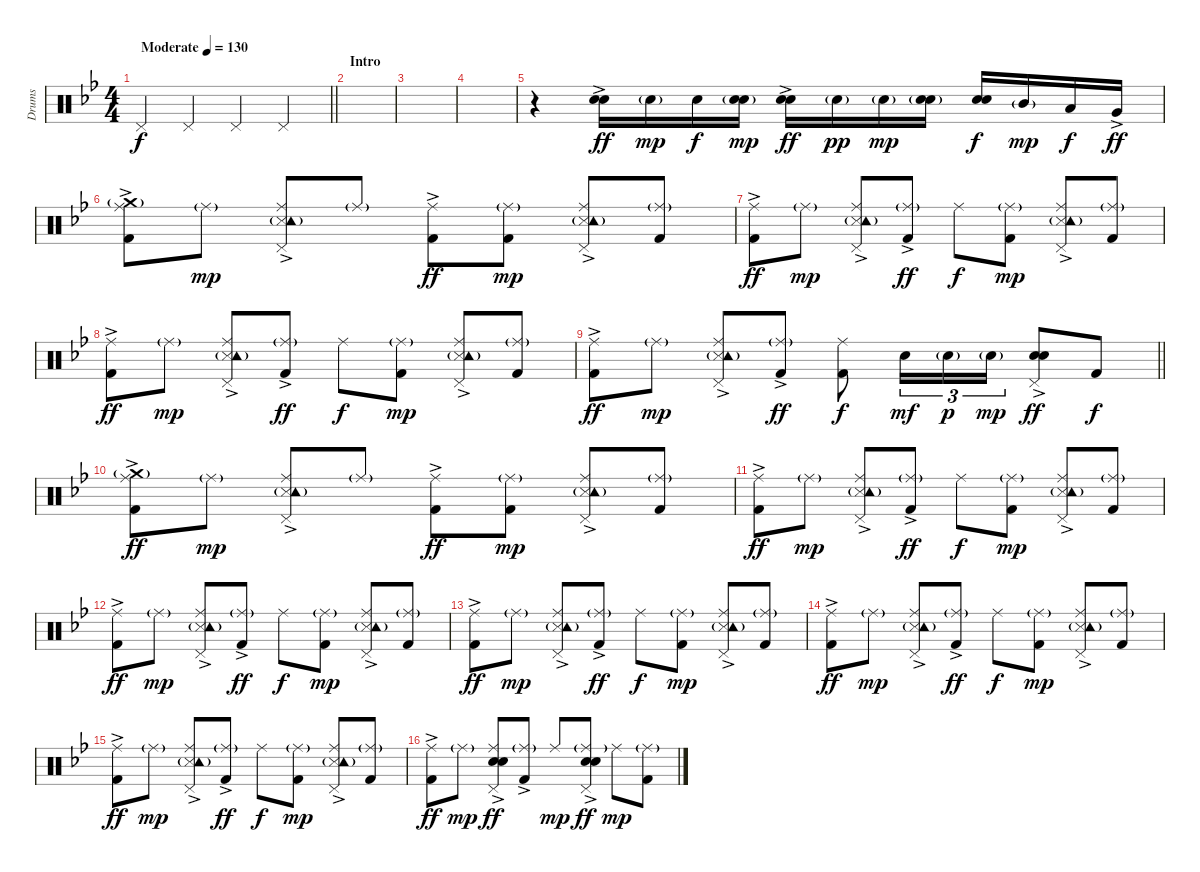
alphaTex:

\track ("Drums" "Drums") {instrument percussion}
\staff {score}
\articulation defaults
\ts (4 4)
\tempo (130 "Moderate")
\clef neutral
\barLineRight lightlight
\ks bb "Pedal Hi-Hat (hit)".4{dy f} "Pedal Hi-Hat (hit)".4 "Pedal Hi-Hat (hit)".4 "Pedal Hi-Hat (hit)".4
|
\section ("" "Intro")
|
|
|
r.4 ("Electric Snare (hit)" "Snare (hit) 2"{ac}).16{dy ff} "Electric Snare (hit)"{g}.16{dy mp} "Electric Snare (hit)".16{dy f} ("Electric Snare (hit)"{g} "Snare (hit) 2").16{dy mp} ("Electric Snare (hit)" "Snare (hit) 2"{ac}).16{dy ff} "Electric Snare (hit)"{g}.16{dy pp} "Electric Snare (hit)"{g}.16{dy mp} ("Electric Snare (hit)"{g} "Snare (hit) 2").16 ("Electric Snare (hit)" "Snare (hit) 2").16{dy f} "Mid Tom (hit)"{g}.16{dy mp} "Low Tom (hit)".16{dy f} "Very Low Tom (hit)"{ac}.16{dy ff} |
("Ride (middle)" "Crash medium (hit)"{g} "Kick (hit) 2"{ac}).8 "Ride (middle)"{g}.8{dy mp} ("Ride (middle)" "Pedal Hi-Hat (hit)" "Snare (side stick) 3"{ac} "Tambourine (hit)"{g}).8 "Ride (middle)"{g}.8 ("Ride (middle)" "Kick (hit) 2"{ac}).8{dy ff} ("Ride (middle)"{g} "Kick (hit) 2").8{dy mp} ("Ride (middle)" "Pedal Hi-Hat (hit)" "Snare (side stick) 3"{ac} "Tambourine (hit)"{g}).8 ("Ride (middle)"{g} "Kick (hit) 2").8 |
("Ride (middle)" "Kick (hit) 2"{ac}).8{dy ff} "Ride (middle)"{g}.8{dy mp} ("Ride (middle)" "Pedal Hi-Hat (hit)" "Snare (side stick) 3"{ac} "Tambourine (hit)"{g}).8 ("Ride (middle)"{g} "Kick (hit) 2"{ac}).8{dy ff} "Ride (middle)".8{dy f} ("Ride (middle)"{g} "Kick (hit) 2").8{dy mp} ("Ride (middle)" "Pedal Hi-Hat (hit)" "Snare (side stick) 3"{ac} "Tambourine (hit)"{g}).8 ("Ride (middle)"{g} "Kick (hit) 2").8 |
("Ride (middle)" "Kick (hit) 2"{ac}).8{dy ff} "Ride (middle)"{g}.8{dy mp} ("Ride (middle)" "Pedal Hi-Hat (hit)" "Snare (side stick) 3"{ac} "Tambourine (hit)"{g}).8 ("Ride (middle)"{g} "Kick (hit) 2"{ac}).8{dy ff} "Ride (middle)".8{dy f} ("Ride (middle)"{g} "Kick (hit) 2").8{dy mp} ("Ride (middle)" "Pedal Hi-Hat (hit)" "Snare (side stick) 3"{ac} "Tambourine (hit)"{g}).8 ("Ride (middle)"{g} "Kick (hit) 2").8 |
\barLineRight lightlight
("Ride (middle)" "Kick (hit) 2"{ac}).8{dy ff} "Ride (middle)"{g}.8{dy mp} ("Ride (middle)" "Pedal Hi-Hat (hit)" "Snare (side stick) 3"{ac} "Tambourine (hit)"{g}).8 ("Ride (middle)"{g} "Kick (hit) 2"{ac}).8{dy ff} ("Ride (middle)" "Kick (hit) 2").8{dy f} "Electric Snare (hit)".16{tu (3 2) dy mf} "Electric Snare (hit)"{g}.16{tu (3 2) dy p} "Electric Snare (hit)"{g}.16{tu (3 2) dy mp} ("Pedal Hi-Hat (hit)" "Electric Snare (hit)" "Snare (hit) 2"{ac}).8{dy ff} "Kick (hit) 2".8{dy f} |
("Ride (middle)" "Crash medium (hit)"{g} "Kick (hit) 2"{ac}).8{dy ff} "Ride (middle)"{g}.8{dy mp} ("Ride (middle)" "Pedal Hi-Hat (hit)" "Snare (side stick) 3"{ac} "Tambourine (hit)"{g}).8 "Ride (middle)"{g}.8 ("Ride (middle)" "Kick (hit) 2"{ac}).8{dy ff} ("Ride (middle)"{g} "Kick (hit) 2").8{dy mp} ("Ride (middle)" "Pedal Hi-Hat (hit)" "Snare (side stick) 3"{ac} "Tambourine (hit)"{g}).8 ("Ride (middle)"{g} "Kick (hit) 2").8 |
("Ride (middle)" "Kick (hit) 2"{ac}).8{dy ff} "Ride (middle)"{g}.8{dy mp} ("Ride (middle)" "Pedal Hi-Hat (hit)" "Snare (side stick) 3"{ac} "Tambourine (hit)"{g}).8 ("Ride (middle)"{g} "Kick (hit) 2"{ac}).8{dy ff} "Ride (middle)".8{dy f} ("Ride (middle)"{g} "Kick (hit) 2").8{dy mp} ("Ride (middle)" "Pedal Hi-Hat (hit)" "Snare (side stick) 3"{ac} "Tambourine (hit)"{g}).8 ("Ride (middle)"{g} "Kick (hit) 2").8 |
("Ride (middle)" "Kick (hit) 2"{ac}).8{dy ff} "Ride (middle)"{g}.8{dy mp} ("Ride (middle)" "Pedal Hi-Hat (hit)" "Snare (side stick) 3"{ac} "Tambourine (hit)"{g}).8 ("Ride (middle)"{g} "Kick (hit) 2"{ac}).8{dy ff} "Ride (middle)".8{dy f} ("Ride (middle)"{g} "Kick (hit) 2").8{dy mp} ("Ride (middle)" "Pedal Hi-Hat (hit)" "Snare (side stick) 3"{ac} "Tambourine (hit)"{g}).8 ("Ride (middle)"{g} "Kick (hit) 2").8 |
("Ride (middle)" "Kick (hit) 2"{ac}).8{dy ff} "Ride (middle)"{g}.8{dy mp} ("Ride (middle)" "Pedal Hi-Hat (hit)" "Snare (side stick) 3"{ac} "Tambourine (hit)"{g}).8 ("Ride (middle)"{g} "Kick (hit) 2"{ac}).8{dy ff} "Ride (middle)".8{dy f} ("Ride (middle)"{g} "Kick (hit) 2").8{dy mp} ("Ride (middle)" "Pedal Hi-Hat (hit)" "Snare (side stick) 3"{ac} "Tambourine (hit)"{g}).8 ("Ride (middle)"{g} "Kick (hit) 2").8 |
("Ride (middle)" "Kick (hit) 2"{ac}).8{dy ff} "Ride (middle)"{g}.8{dy mp} ("Ride (middle)" "Pedal Hi-Hat (hit)" "Snare (side stick) 3"{ac} "Tambourine (hit)"{g}).8 ("Ride (middle)"{g} "Kick (hit) 2"{ac}).8{dy ff} "Ride (middle)".8{dy f} ("Ride (middle)"{g} "Kick (hit) 2").8{dy mp} ("Ride (middle)" "Pedal Hi-Hat (hit)" "Snare (side stick) 3"{ac} "Tambourine (hit)"{g}).8 ("Ride (middle)"{g} "Kick (hit) 2").8 |
("Ride (middle)" "Kick (hit) 2"{ac}).8{dy ff} "Ride (middle)"{g}.8{dy mp} ("Ride (middle)" "Pedal Hi-Hat (hit)" "Snare (side stick) 3"{ac} "Tambourine (hit)"{g}).8 ("Ride (middle)"{g} "Kick (hit) 2"{ac}).8{dy ff} "Ride (middle)".8{dy f} ("Ride (middle)"{g} "Kick (hit) 2").8{dy mp} ("Ride (middle)" "Pedal Hi-Hat (hit)" "Snare (side stick) 3"{ac} "Tambourine (hit)"{g}).8 ("Ride (middle)"{g} "Kick (hit) 2").8 |
("Ride (middle)" "Kick (hit) 2"{ac}).8{dy ff} "Ride (middle)"{g}.8{dy mp} ("Ride (middle)" "Pedal Hi-Hat (hit)" "Electric Snare (hit)" "Snare (hit) 2"{ac}).8{dy ff} ("Ride (middle)"{g} "Kick (hit) 2"{ac}).8 "Ride (middle)".8{dy mp} ("Ride (middle)"{g} "Pedal Hi-Hat (hit)" "Electric Snare (hit)" "Snare (hit) 2"{ac}).8{dy ff} "Ride (middle)".8{dy mp} ("Ride (middle)"{g} "Kick (hit) 2").8
